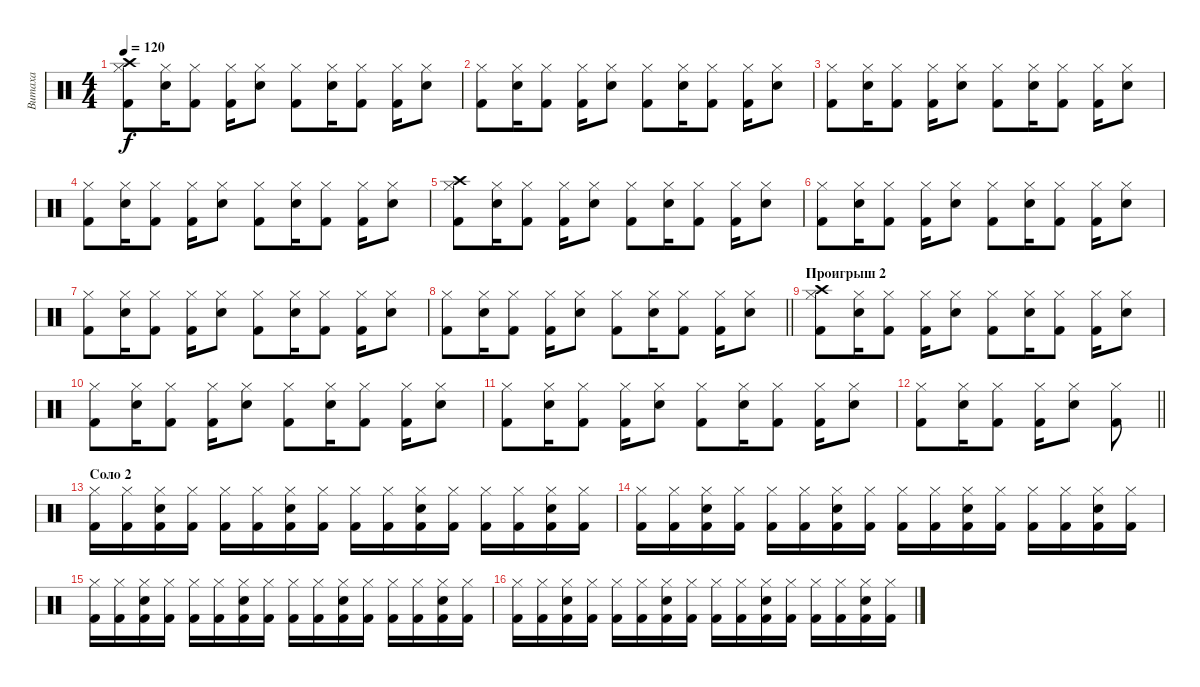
\track ("Витаха" "Витаха") {instrument percussion}
\staff {score}
\articulation defaults
\ts (4 4)
\tempo 120
\clef neutral
\ks c
("Kick (hit) 2" "Crash high (hit)" "Hi-Hat (closed)").8{dy f} ("Electric Snare (hit)" "Hi-Hat (closed)").16 ("Kick (hit) 2" "Hi-Hat (closed)").8 ("Kick (hit) 2" "Hi-Hat (closed)").16 ("Electric Snare (hit)" "Hi-Hat (closed)").8 ("Kick (hit) 2" "Hi-Hat (closed)").8 ("Electric Snare (hit)" "Hi-Hat (closed)").16 ("Kick (hit) 2" "Hi-Hat (closed)").8 ("Kick (hit) 2" "Hi-Hat (closed)").16 ("Electric Snare (hit)" "Hi-Hat (closed)").8 |
("Kick (hit) 2" "Hi-Hat (closed)").8 ("Electric Snare (hit)" "Hi-Hat (closed)").16 ("Kick (hit) 2" "Hi-Hat (closed)").8 ("Kick (hit) 2" "Hi-Hat (closed)").16 ("Electric Snare (hit)" "Hi-Hat (closed)").8 ("Kick (hit) 2" "Hi-Hat (closed)").8 ("Electric Snare (hit)" "Hi-Hat (closed)").16 ("Kick (hit) 2" "Hi-Hat (closed)").8 ("Kick (hit) 2" "Hi-Hat (closed)").16 ("Electric Snare (hit)" "Hi-Hat (closed)").8 |
("Kick (hit) 2" "Hi-Hat (closed)").8 ("Electric Snare (hit)" "Hi-Hat (closed)").16 ("Kick (hit) 2" "Hi-Hat (closed)").8 ("Kick (hit) 2" "Hi-Hat (closed)").16 ("Electric Snare (hit)" "Hi-Hat (closed)").8 ("Kick (hit) 2" "Hi-Hat (closed)").8 ("Electric Snare (hit)" "Hi-Hat (closed)").16 ("Kick (hit) 2" "Hi-Hat (closed)").8 ("Kick (hit) 2" "Hi-Hat (closed)").16 ("Electric Snare (hit)" "Hi-Hat (closed)").8 |
("Kick (hit) 2" "Hi-Hat (closed)").8 ("Electric Snare (hit)" "Hi-Hat (closed)").16 ("Kick (hit) 2" "Hi-Hat (closed)").8 ("Kick (hit) 2" "Hi-Hat (closed)").16 ("Electric Snare (hit)" "Hi-Hat (closed)").8 ("Kick (hit) 2" "Hi-Hat (closed)").8 ("Electric Snare (hit)" "Hi-Hat (closed)").16 ("Kick (hit) 2" "Hi-Hat (closed)").8 ("Kick (hit) 2" "Hi-Hat (closed)").16 ("Electric Snare (hit)" "Hi-Hat (closed)").8 |
("Kick (hit) 2" "Crash high (hit)" "Hi-Hat (closed)").8 ("Electric Snare (hit)" "Hi-Hat (closed)").16 ("Kick (hit) 2" "Hi-Hat (closed)").8 ("Kick (hit) 2" "Hi-Hat (closed)").16 ("Electric Snare (hit)" "Hi-Hat (closed)").8 ("Kick (hit) 2" "Hi-Hat (closed)").8 ("Electric Snare (hit)" "Hi-Hat (closed)").16 ("Kick (hit) 2" "Hi-Hat (closed)").8 ("Kick (hit) 2" "Hi-Hat (closed)").16 ("Electric Snare (hit)" "Hi-Hat (closed)").8 |
("Kick (hit) 2" "Hi-Hat (closed)").8 ("Electric Snare (hit)" "Hi-Hat (closed)").16 ("Kick (hit) 2" "Hi-Hat (closed)").8 ("Kick (hit) 2" "Hi-Hat (closed)").16 ("Electric Snare (hit)" "Hi-Hat (closed)").8 ("Kick (hit) 2" "Hi-Hat (closed)").8 ("Electric Snare (hit)" "Hi-Hat (closed)").16 ("Kick (hit) 2" "Hi-Hat (closed)").8 ("Kick (hit) 2" "Hi-Hat (closed)").16 ("Electric Snare (hit)" "Hi-Hat (closed)").8 |
("Kick (hit) 2" "Hi-Hat (closed)").8 ("Electric Snare (hit)" "Hi-Hat (closed)").16 ("Kick (hit) 2" "Hi-Hat (closed)").8 ("Kick (hit) 2" "Hi-Hat (closed)").16 ("Electric Snare (hit)" "Hi-Hat (closed)").8 ("Kick (hit) 2" "Hi-Hat (closed)").8 ("Electric Snare (hit)" "Hi-Hat (closed)").16 ("Kick (hit) 2" "Hi-Hat (closed)").8 ("Kick (hit) 2" "Hi-Hat (closed)").16 ("Electric Snare (hit)" "Hi-Hat (closed)").8 |
\barLineRight lightlight
("Kick (hit) 2" "Hi-Hat (closed)").8 ("Electric Snare (hit)" "Hi-Hat (closed)").16 ("Kick (hit) 2" "Hi-Hat (closed)").8 ("Kick (hit) 2" "Hi-Hat (closed)").16 ("Electric Snare (hit)" "Hi-Hat (closed)").8 ("Kick (hit) 2" "Hi-Hat (closed)").8 ("Electric Snare (hit)" "Hi-Hat (closed)").16 ("Kick (hit) 2" "Hi-Hat (closed)").8 ("Kick (hit) 2" "Hi-Hat (closed)").16 ("Electric Snare (hit)" "Hi-Hat (closed)").8 |
\section ("" "Проигрыш 2")
("Kick (hit) 2" "Crash high (hit)" "Hi-Hat (closed)").8 ("Electric Snare (hit)" "Hi-Hat (closed)").16 ("Kick (hit) 2" "Hi-Hat (closed)").8 ("Kick (hit) 2" "Hi-Hat (closed)").16 ("Electric Snare (hit)" "Hi-Hat (closed)").8 ("Kick (hit) 2" "Hi-Hat (closed)").8 ("Electric Snare (hit)" "Hi-Hat (closed)").16 ("Kick (hit) 2" "Hi-Hat (closed)").8 ("Kick (hit) 2" "Hi-Hat (closed)").16 ("Electric Snare (hit)" "Hi-Hat (closed)").8 |
("Kick (hit) 2" "Hi-Hat (closed)").8 ("Electric Snare (hit)" "Hi-Hat (closed)").16 ("Kick (hit) 2" "Hi-Hat (closed)").8 ("Kick (hit) 2" "Hi-Hat (closed)").16 ("Electric Snare (hit)" "Hi-Hat (closed)").8 ("Kick (hit) 2" "Hi-Hat (closed)").8 ("Electric Snare (hit)" "Hi-Hat (closed)").16 ("Kick (hit) 2" "Hi-Hat (closed)").8 ("Kick (hit) 2" "Hi-Hat (closed)").16 ("Electric Snare (hit)" "Hi-Hat (closed)").8 |
("Kick (hit) 2" "Hi-Hat (closed)").8 ("Electric Snare (hit)" "Hi-Hat (closed)").16 ("Kick (hit) 2" "Hi-Hat (closed)").8 ("Kick (hit) 2" "Hi-Hat (closed)").16 ("Electric Snare (hit)" "Hi-Hat (closed)").8 ("Kick (hit) 2" "Hi-Hat (closed)").8 ("Electric Snare (hit)" "Hi-Hat (closed)").16 ("Kick (hit) 2" "Hi-Hat (closed)").8 ("Kick (hit) 2" "Hi-Hat (closed)").16 ("Electric Snare (hit)" "Hi-Hat (closed)").8 |
\barLineRight lightlight
("Kick (hit) 2" "Hi-Hat (closed)").8 ("Electric Snare (hit)" "Hi-Hat (closed)").16 ("Kick (hit) 2" "Hi-Hat (closed)").8 ("Kick (hit) 2" "Hi-Hat (closed)").16 ("Electric Snare (hit)" "Hi-Hat (closed)").8 ("Kick (hit) 2" "Hi-Hat (closed)").8 |
\section ("" "Соло 2")
("Kick (hit) 2" "Hi-Hat (closed)").16 ("Kick (hit) 2" "Hi-Hat (closed)").16 ("Electric Snare (hit)" "Hi-Hat (closed)" "Kick (hit) 2").16 ("Kick (hit) 2" "Hi-Hat (closed)").16 ("Kick (hit) 2" "Hi-Hat (closed)").16 ("Kick (hit) 2" "Hi-Hat (closed)").16 ("Electric Snare (hit)" "Hi-Hat (closed)" "Kick (hit) 2").16 ("Kick (hit) 2" "Hi-Hat (closed)").16 ("Kick (hit) 2" "Hi-Hat (closed)").16 ("Kick (hit) 2" "Hi-Hat (closed)").16 ("Electric Snare (hit)" "Hi-Hat (closed)" "Kick (hit) 2").16 ("Kick (hit) 2" "Hi-Hat (closed)").16 ("Kick (hit) 2" "Hi-Hat (closed)").16 ("Kick (hit) 2" "Hi-Hat (closed)").16 ("Electric Snare (hit)" "Hi-Hat (closed)" "Kick (hit) 2").16 ("Kick (hit) 2" "Hi-Hat (closed)").16 |
("Kick (hit) 2" "Hi-Hat (closed)").16 ("Kick (hit) 2" "Hi-Hat (closed)").16 ("Electric Snare (hit)" "Hi-Hat (closed)" "Kick (hit) 2").16 ("Kick (hit) 2" "Hi-Hat (closed)").16 ("Kick (hit) 2" "Hi-Hat (closed)").16 ("Kick (hit) 2" "Hi-Hat (closed)").16 ("Electric Snare (hit)" "Hi-Hat (closed)" "Kick (hit) 2").16 ("Kick (hit) 2" "Hi-Hat (closed)").16 ("Kick (hit) 2" "Hi-Hat (closed)").16 ("Kick (hit) 2" "Hi-Hat (closed)").16 ("Electric Snare (hit)" "Hi-Hat (closed)" "Kick (hit) 2").16 ("Kick (hit) 2" "Hi-Hat (closed)").16 ("Kick (hit) 2" "Hi-Hat (closed)").16 ("Kick (hit) 2" "Hi-Hat (closed)").16 ("Electric Snare (hit)" "Hi-Hat (closed)" "Kick (hit) 2").16 ("Kick (hit) 2" "Hi-Hat (closed)").16 |
("Kick (hit) 2" "Hi-Hat (closed)").16 ("Kick (hit) 2" "Hi-Hat (closed)").16 ("Electric Snare (hit)" "Hi-Hat (closed)" "Kick (hit) 2").16 ("Kick (hit) 2" "Hi-Hat (closed)").16 ("Kick (hit) 2" "Hi-Hat (closed)").16 ("Kick (hit) 2" "Hi-Hat (closed)").16 ("Electric Snare (hit)" "Hi-Hat (closed)" "Kick (hit) 2").16 ("Kick (hit) 2" "Hi-Hat (closed)").16 ("Kick (hit) 2" "Hi-Hat (closed)").16 ("Kick (hit) 2" "Hi-Hat (closed)").16 ("Electric Snare (hit)" "Hi-Hat (closed)" "Kick (hit) 2").16 ("Kick (hit) 2" "Hi-Hat (closed)").16 ("Kick (hit) 2" "Hi-Hat (closed)").16 ("Kick (hit) 2" "Hi-Hat (closed)").16 ("Electric Snare (hit)" "Hi-Hat (closed)" "Kick (hit) 2").16 ("Kick (hit) 2" "Hi-Hat (closed)").16 |
("Kick (hit) 2" "Hi-Hat (closed)").16 ("Kick (hit) 2" "Hi-Hat (closed)").16 ("Electric Snare (hit)" "Hi-Hat (closed)" "Kick (hit) 2").16 ("Kick (hit) 2" "Hi-Hat (closed)").16 ("Kick (hit) 2" "Hi-Hat (closed)").16 ("Kick (hit) 2" "Hi-Hat (closed)").16 ("Electric Snare (hit)" "Hi-Hat (closed)" "Kick (hit) 2").16 ("Kick (hit) 2" "Hi-Hat (closed)").16 ("Kick (hit) 2" "Hi-Hat (closed)").16 ("Kick (hit) 2" "Hi-Hat (closed)").16 ("Electric Snare (hit)" "Hi-Hat (closed)" "Kick (hit) 2").16 ("Kick (hit) 2" "Hi-Hat (closed)").16 ("Kick (hit) 2" "Hi-Hat (closed)").16 ("Kick (hit) 2" "Hi-Hat (closed)").16 ("Electric Snare (hit)" "Hi-Hat (closed)" "Kick (hit) 2").16 ("Kick (hit) 2" "Hi-Hat (closed)").16
